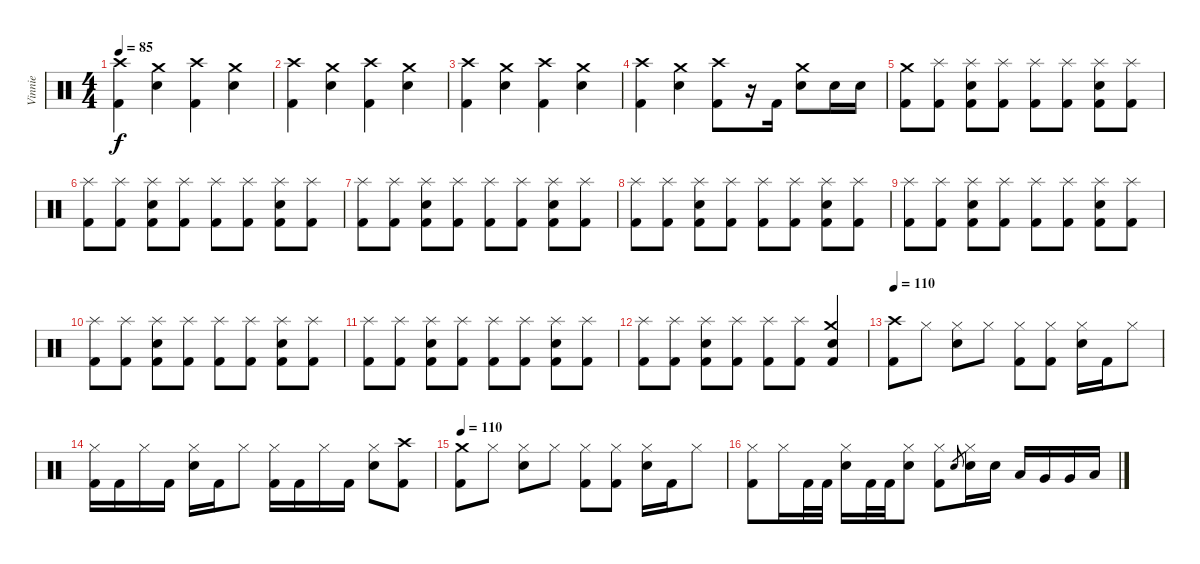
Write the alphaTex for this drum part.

\track ("Vinnie" "Vinnie") {instrument percussion}
\staff {score}
\articulation defaults
\ts (4 4)
\tempo 85
\clef neutral
\ks c
("Crash high (hit)" "Kick (hit) 2").4{dy f} ("Crash medium (hit)" "Electric Snare (hit)").4 ("Crash high (hit)" "Kick (hit) 2").4 ("Crash medium (hit)" "Electric Snare (hit)").4 |
("Crash high (hit)" "Kick (hit) 2").4 ("Crash medium (hit)" "Electric Snare (hit)").4 ("Crash high (hit)" "Kick (hit) 2").4 ("Crash medium (hit)" "Electric Snare (hit)").4 |
("Crash high (hit)" "Kick (hit) 2").4 ("Crash medium (hit)" "Electric Snare (hit)").4 ("Crash high (hit)" "Kick (hit) 2").4 ("Crash medium (hit)" "Electric Snare (hit)").4 |
("Crash high (hit)" "Kick (hit) 2").4 ("Crash medium (hit)" "Electric Snare (hit)").4 ("Crash high (hit)" "Kick (hit) 2").8 r.16 "Kick (hit) 2".16 ("Crash medium (hit)" "Electric Snare (hit)").8 "Electric Snare (hit)".16 "Electric Snare (hit)".16 |
("Crash medium (hit)" "Kick (hit) 2").8 ("Splash (hit)" "Kick (hit) 2").8 ("Splash (hit)" "Electric Snare (hit)" "Kick (hit) 2").8 ("Splash (hit)" "Kick (hit) 2").8 ("Splash (hit)" "Kick (hit) 2").8 ("Splash (hit)" "Kick (hit) 2").8 ("Splash (hit)" "Electric Snare (hit)" "Kick (hit) 2").8 ("Splash (hit)" "Kick (hit) 2").8 |
("Splash (hit)" "Kick (hit) 2").8 ("Splash (hit)" "Kick (hit) 2").8 ("Splash (hit)" "Electric Snare (hit)" "Kick (hit) 2").8 ("Splash (hit)" "Kick (hit) 2").8 ("Splash (hit)" "Kick (hit) 2").8 ("Splash (hit)" "Kick (hit) 2").8 ("Splash (hit)" "Electric Snare (hit)" "Kick (hit) 2").8 ("Splash (hit)" "Kick (hit) 2").8 |
("Splash (hit)" "Kick (hit) 2").8 ("Splash (hit)" "Kick (hit) 2").8 ("Splash (hit)" "Electric Snare (hit)" "Kick (hit) 2").8 ("Splash (hit)" "Kick (hit) 2").8 ("Splash (hit)" "Kick (hit) 2").8 ("Splash (hit)" "Kick (hit) 2").8 ("Splash (hit)" "Electric Snare (hit)" "Kick (hit) 2").8 ("Splash (hit)" "Kick (hit) 2").8 |
("Splash (hit)" "Kick (hit) 2").8 ("Splash (hit)" "Kick (hit) 2").8 ("Splash (hit)" "Electric Snare (hit)" "Kick (hit) 2").8 ("Splash (hit)" "Kick (hit) 2").8 ("Splash (hit)" "Kick (hit) 2").8 ("Splash (hit)" "Kick (hit) 2").8 ("Splash (hit)" "Electric Snare (hit)" "Kick (hit) 2").8 ("Splash (hit)" "Kick (hit) 2").8 |
("Splash (hit)" "Kick (hit) 2").8 ("Splash (hit)" "Kick (hit) 2").8 ("Splash (hit)" "Electric Snare (hit)" "Kick (hit) 2").8 ("Splash (hit)" "Kick (hit) 2").8 ("Splash (hit)" "Kick (hit) 2").8 ("Splash (hit)" "Kick (hit) 2").8 ("Splash (hit)" "Electric Snare (hit)" "Kick (hit) 2").8 ("Splash (hit)" "Kick (hit) 2").8 |
("Splash (hit)" "Kick (hit) 2").8 ("Splash (hit)" "Kick (hit) 2").8 ("Splash (hit)" "Electric Snare (hit)" "Kick (hit) 2").8 ("Splash (hit)" "Kick (hit) 2").8 ("Splash (hit)" "Kick (hit) 2").8 ("Splash (hit)" "Kick (hit) 2").8 ("Splash (hit)" "Electric Snare (hit)" "Kick (hit) 2").8 ("Splash (hit)" "Kick (hit) 2").8 |
("Splash (hit)" "Kick (hit) 2").8 ("Splash (hit)" "Kick (hit) 2").8 ("Splash (hit)" "Electric Snare (hit)" "Kick (hit) 2").8 ("Splash (hit)" "Kick (hit) 2").8 ("Splash (hit)" "Kick (hit) 2").8 ("Splash (hit)" "Kick (hit) 2").8 ("Splash (hit)" "Electric Snare (hit)" "Kick (hit) 2").8 ("Splash (hit)" "Kick (hit) 2").8 |
("Splash (hit)" "Kick (hit) 2").8 ("Splash (hit)" "Kick (hit) 2").8 ("Splash (hit)" "Electric Snare (hit)" "Kick (hit) 2").8 ("Splash (hit)" "Kick (hit) 2").8 ("Splash (hit)" "Kick (hit) 2").8 ("Splash (hit)" "Kick (hit) 2").8 ("Crash medium (hit)" "Electric Snare (hit)" "Kick (hit) 2").4 |
\tempo 110
("Crash high (hit)" "Kick (hit) 2").8 "Hi-Hat (closed)".8 ("Hi-Hat (closed)" "Electric Snare (hit)").8 "Hi-Hat (closed)".8 ("Hi-Hat (closed)" "Kick (hit) 2").8 ("Hi-Hat (closed)" "Kick (hit) 2").8 ("Hi-Hat (closed)" "Electric Snare (hit)").16 "Kick (hit) 2".16 "Hi-Hat (closed)".8 |
("Hi-Hat (closed)" "Kick (hit) 2").16 "Kick (hit) 2".16 "Hi-Hat (closed)".16 "Kick (hit) 2".16 ("Hi-Hat (closed)" "Electric Snare (hit)").16 "Kick (hit) 2".16 "Hi-Hat (closed)".8 ("Hi-Hat (closed)" "Kick (hit) 2").16 "Kick (hit) 2".16 "Hi-Hat (closed)".16 "Kick (hit) 2".16 ("Hi-Hat (closed)" "Electric Snare (hit)").8 ("Crash high (hit)" "Kick (hit) 2").8 |
\tempo 110
("Crash medium (hit)" "Kick (hit) 2").8 "Hi-Hat (closed)".8 ("Hi-Hat (closed)" "Electric Snare (hit)").8 "Hi-Hat (closed)".8 ("Hi-Hat (closed)" "Kick (hit) 2").8 ("Hi-Hat (closed)" "Kick (hit) 2").8 ("Hi-Hat (closed)" "Electric Snare (hit)").16 "Kick (hit) 2".16 "Hi-Hat (closed)".8 |
("Hi-Hat (closed)" "Kick (hit) 2").8 "Hi-Hat (closed)".16 "Kick (hit) 2".32 "Kick (hit) 2".32 ("Hi-Hat (closed)" "Electric Snare (hit)").16 "Kick (hit) 2".32 "Kick (hit) 2".32 ("Hi-Hat (closed)" "Electric Snare (hit)").8 ("Hi-Hat (closed)" "Kick (hit) 2").8 "Electric Snare (hit)".8{gr} ("Hi-Hat (closed)" "Electric Snare (hit)").16 "Electric Snare (hit)".16 "Low Tom (hit)".16 "Very Low Tom (hit)".16 "Very Low Tom (hit)".16 "Low Floor Tom (hit)".16
